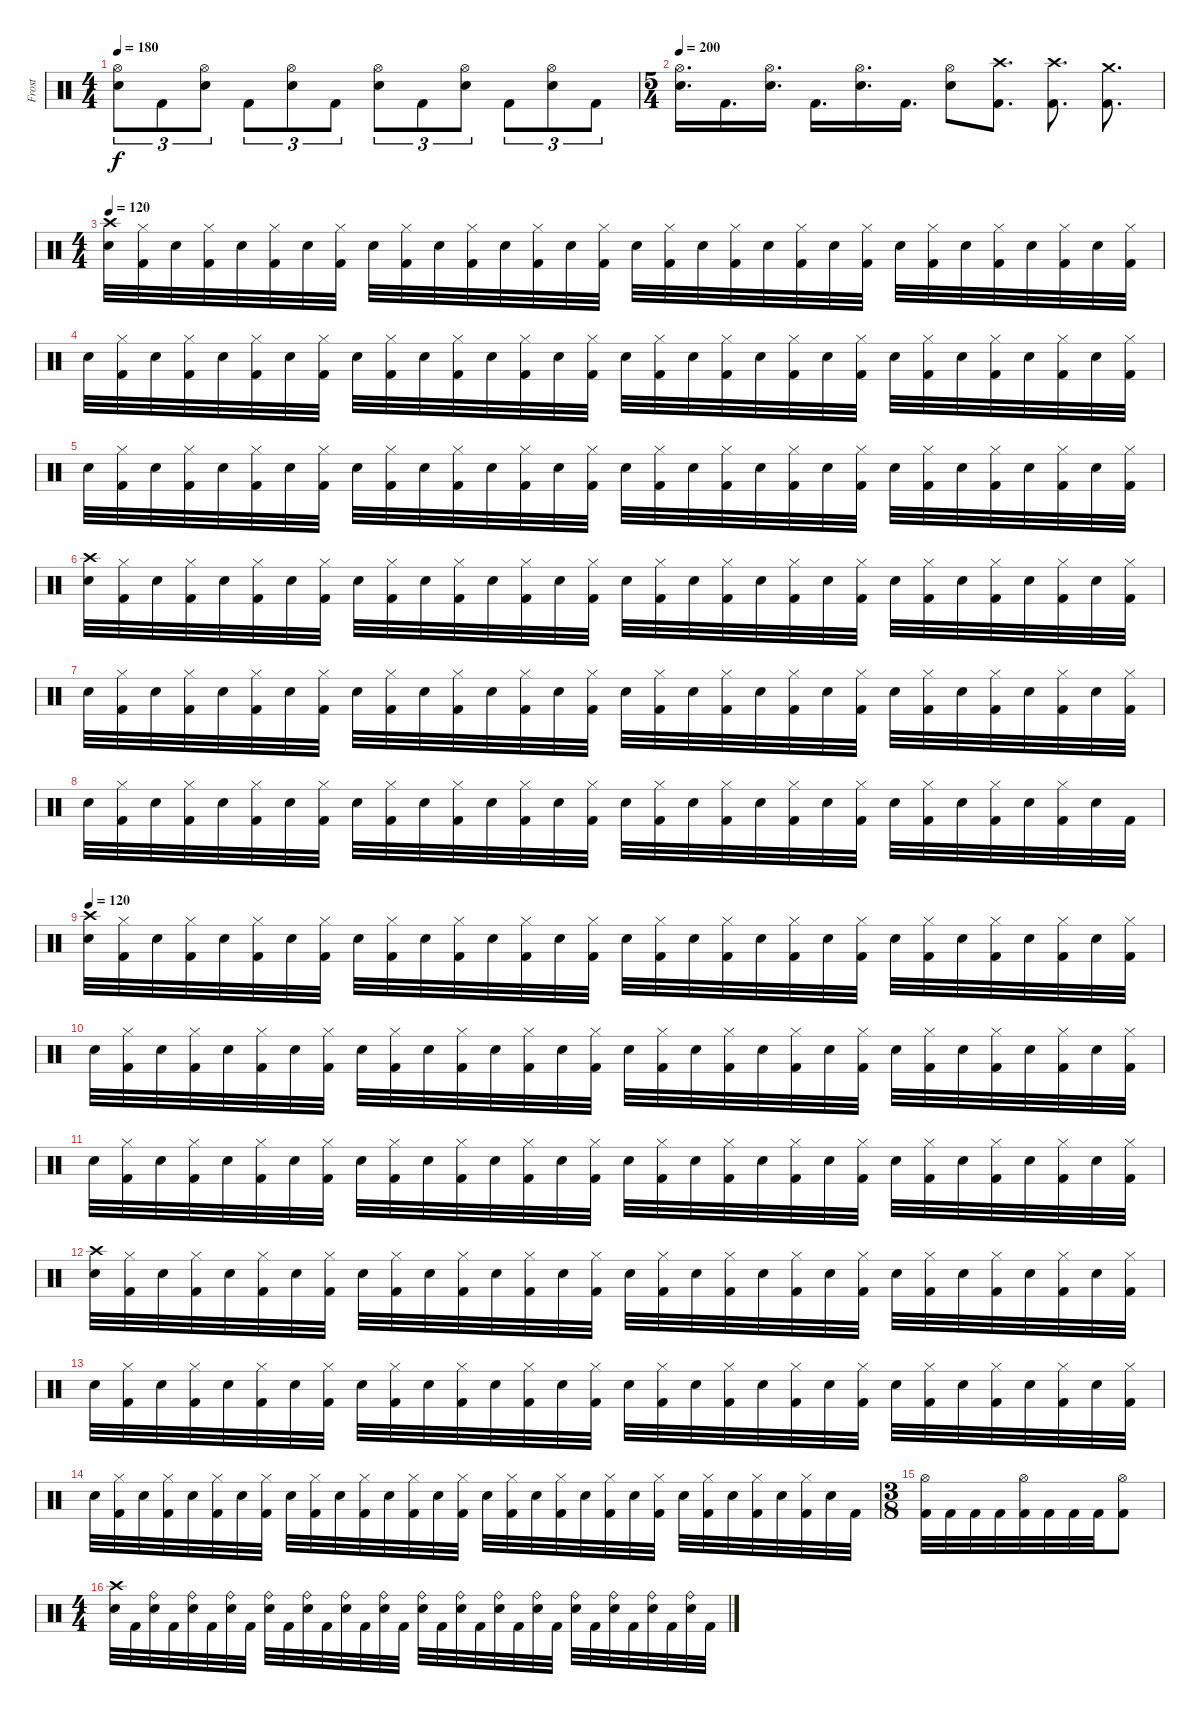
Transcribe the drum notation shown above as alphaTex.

\track ("Frost" "Frost") {instrument percussion}
\staff {score}
\articulation defaults
\ts (4 4)
\tempo 180
\clef neutral
\ks c
("Hi-Hat (open)" "Snare (hit) 2").8{tu (3 2) dy f} "Kick (hit) 2".8{tu (3 2)} ("Hi-Hat (open)" "Snare (hit) 2").8{tu (3 2)} "Kick (hit) 2".8{tu (3 2)} ("Hi-Hat (open)" "Snare (hit) 2").8{tu (3 2)} "Kick (hit) 2".8{tu (3 2)} ("Hi-Hat (open)" "Snare (hit) 2").8{tu (3 2)} "Kick (hit) 2".8{tu (3 2)} ("Hi-Hat (open)" "Snare (hit) 2").8{tu (3 2)} "Kick (hit) 2".8{tu (3 2)} ("Hi-Hat (open)" "Snare (hit) 2").8{tu (3 2)} "Kick (hit) 2".8{tu (3 2)} |
\ts (5 4)
\tempo 200
("Hi-Hat (open)" "Snare (hit) 2").16{d} "Kick (hit) 2".16{d} ("Hi-Hat (open)" "Snare (hit) 2").16{d} "Kick (hit) 2".16{d} ("Hi-Hat (open)" "Snare (hit) 2").16{d} "Kick (hit) 2".16{d} ("Hi-Hat (open)" "Snare (hit) 2").8 ("Crash high (hit)" "Kick (hit) 2").8{d} ("Crash high (hit)" "Kick (hit) 2").8{d} ("Crash medium (hit)" "Kick (hit) 2").8{d} |
\ts (4 4)
\tempo 120
("Crash high (hit)" "Snare (hit) 2").32 ("Hi-Hat (closed)" "Kick (hit) 2").32 "Snare (hit) 2".32 ("Hi-Hat (closed)" "Kick (hit) 2").32 "Snare (hit) 2".32 ("Hi-Hat (closed)" "Kick (hit) 2").32 "Snare (hit) 2".32 ("Hi-Hat (closed)" "Kick (hit) 2").32 "Snare (hit) 2".32 ("Hi-Hat (closed)" "Kick (hit) 2").32 "Snare (hit) 2".32 ("Hi-Hat (closed)" "Kick (hit) 2").32 "Snare (hit) 2".32 ("Hi-Hat (closed)" "Kick (hit) 2").32 "Snare (hit) 2".32 ("Hi-Hat (closed)" "Kick (hit) 2").32 "Snare (hit) 2".32 ("Hi-Hat (closed)" "Kick (hit) 2").32 "Snare (hit) 2".32 ("Hi-Hat (closed)" "Kick (hit) 2").32 "Snare (hit) 2".32 ("Hi-Hat (closed)" "Kick (hit) 2").32 "Snare (hit) 2".32 ("Hi-Hat (closed)" "Kick (hit) 2").32 "Snare (hit) 2".32 ("Hi-Hat (closed)" "Kick (hit) 2").32 "Snare (hit) 2".32 ("Hi-Hat (closed)" "Kick (hit) 2").32 "Snare (hit) 2".32 ("Hi-Hat (closed)" "Kick (hit) 2").32 "Snare (hit) 2".32 ("Hi-Hat (closed)" "Kick (hit) 2").32 |
"Snare (hit) 2".32 ("Hi-Hat (closed)" "Kick (hit) 2").32 "Snare (hit) 2".32 ("Hi-Hat (closed)" "Kick (hit) 2").32 "Snare (hit) 2".32 ("Hi-Hat (closed)" "Kick (hit) 2").32 "Snare (hit) 2".32 ("Hi-Hat (closed)" "Kick (hit) 2").32 "Snare (hit) 2".32 ("Hi-Hat (closed)" "Kick (hit) 2").32 "Snare (hit) 2".32 ("Hi-Hat (closed)" "Kick (hit) 2").32 "Snare (hit) 2".32 ("Hi-Hat (closed)" "Kick (hit) 2").32 "Snare (hit) 2".32 ("Hi-Hat (closed)" "Kick (hit) 2").32 "Snare (hit) 2".32 ("Hi-Hat (closed)" "Kick (hit) 2").32 "Snare (hit) 2".32 ("Hi-Hat (closed)" "Kick (hit) 2").32 "Snare (hit) 2".32 ("Hi-Hat (closed)" "Kick (hit) 2").32 "Snare (hit) 2".32 ("Hi-Hat (closed)" "Kick (hit) 2").32 "Snare (hit) 2".32 ("Hi-Hat (closed)" "Kick (hit) 2").32 "Snare (hit) 2".32 ("Hi-Hat (closed)" "Kick (hit) 2").32 "Snare (hit) 2".32 ("Hi-Hat (closed)" "Kick (hit) 2").32 "Snare (hit) 2".32 ("Hi-Hat (closed)" "Kick (hit) 2").32 |
"Snare (hit) 2".32 ("Hi-Hat (closed)" "Kick (hit) 2").32 "Snare (hit) 2".32 ("Hi-Hat (closed)" "Kick (hit) 2").32 "Snare (hit) 2".32 ("Hi-Hat (closed)" "Kick (hit) 2").32 "Snare (hit) 2".32 ("Hi-Hat (closed)" "Kick (hit) 2").32 "Snare (hit) 2".32 ("Hi-Hat (closed)" "Kick (hit) 2").32 "Snare (hit) 2".32 ("Hi-Hat (closed)" "Kick (hit) 2").32 "Snare (hit) 2".32 ("Hi-Hat (closed)" "Kick (hit) 2").32 "Snare (hit) 2".32 ("Hi-Hat (closed)" "Kick (hit) 2").32 "Snare (hit) 2".32 ("Hi-Hat (closed)" "Kick (hit) 2").32 "Snare (hit) 2".32 ("Hi-Hat (closed)" "Kick (hit) 2").32 "Snare (hit) 2".32 ("Hi-Hat (closed)" "Kick (hit) 2").32 "Snare (hit) 2".32 ("Hi-Hat (closed)" "Kick (hit) 2").32 "Snare (hit) 2".32 ("Hi-Hat (closed)" "Kick (hit) 2").32 "Snare (hit) 2".32 ("Hi-Hat (closed)" "Kick (hit) 2").32 "Snare (hit) 2".32 ("Hi-Hat (closed)" "Kick (hit) 2").32 "Snare (hit) 2".32 ("Hi-Hat (closed)" "Kick (hit) 2").32 |
("Crash high (hit)" "Snare (hit) 2").32 ("Hi-Hat (closed)" "Kick (hit) 2").32 "Snare (hit) 2".32 ("Hi-Hat (closed)" "Kick (hit) 2").32 "Snare (hit) 2".32 ("Hi-Hat (closed)" "Kick (hit) 2").32 "Snare (hit) 2".32 ("Hi-Hat (closed)" "Kick (hit) 2").32 "Snare (hit) 2".32 ("Hi-Hat (closed)" "Kick (hit) 2").32 "Snare (hit) 2".32 ("Hi-Hat (closed)" "Kick (hit) 2").32 "Snare (hit) 2".32 ("Hi-Hat (closed)" "Kick (hit) 2").32 "Snare (hit) 2".32 ("Hi-Hat (closed)" "Kick (hit) 2").32 "Snare (hit) 2".32 ("Hi-Hat (closed)" "Kick (hit) 2").32 "Snare (hit) 2".32 ("Hi-Hat (closed)" "Kick (hit) 2").32 "Snare (hit) 2".32 ("Hi-Hat (closed)" "Kick (hit) 2").32 "Snare (hit) 2".32 ("Hi-Hat (closed)" "Kick (hit) 2").32 "Snare (hit) 2".32 ("Hi-Hat (closed)" "Kick (hit) 2").32 "Snare (hit) 2".32 ("Hi-Hat (closed)" "Kick (hit) 2").32 "Snare (hit) 2".32 ("Hi-Hat (closed)" "Kick (hit) 2").32 "Snare (hit) 2".32 ("Hi-Hat (closed)" "Kick (hit) 2").32 |
"Snare (hit) 2".32 ("Hi-Hat (closed)" "Kick (hit) 2").32 "Snare (hit) 2".32 ("Hi-Hat (closed)" "Kick (hit) 2").32 "Snare (hit) 2".32 ("Hi-Hat (closed)" "Kick (hit) 2").32 "Snare (hit) 2".32 ("Hi-Hat (closed)" "Kick (hit) 2").32 "Snare (hit) 2".32 ("Hi-Hat (closed)" "Kick (hit) 2").32 "Snare (hit) 2".32 ("Hi-Hat (closed)" "Kick (hit) 2").32 "Snare (hit) 2".32 ("Hi-Hat (closed)" "Kick (hit) 2").32 "Snare (hit) 2".32 ("Hi-Hat (closed)" "Kick (hit) 2").32 "Snare (hit) 2".32 ("Hi-Hat (closed)" "Kick (hit) 2").32 "Snare (hit) 2".32 ("Hi-Hat (closed)" "Kick (hit) 2").32 "Snare (hit) 2".32 ("Hi-Hat (closed)" "Kick (hit) 2").32 "Snare (hit) 2".32 ("Hi-Hat (closed)" "Kick (hit) 2").32 "Snare (hit) 2".32 ("Hi-Hat (closed)" "Kick (hit) 2").32 "Snare (hit) 2".32 ("Hi-Hat (closed)" "Kick (hit) 2").32 "Snare (hit) 2".32 ("Hi-Hat (closed)" "Kick (hit) 2").32 "Snare (hit) 2".32 ("Hi-Hat (closed)" "Kick (hit) 2").32 |
"Snare (hit) 2".32 ("Hi-Hat (closed)" "Kick (hit) 2").32 "Snare (hit) 2".32 ("Hi-Hat (closed)" "Kick (hit) 2").32 "Snare (hit) 2".32 ("Hi-Hat (closed)" "Kick (hit) 2").32 "Snare (hit) 2".32 ("Hi-Hat (closed)" "Kick (hit) 2").32 "Snare (hit) 2".32 ("Hi-Hat (closed)" "Kick (hit) 2").32 "Snare (hit) 2".32 ("Hi-Hat (closed)" "Kick (hit) 2").32 "Snare (hit) 2".32 ("Hi-Hat (closed)" "Kick (hit) 2").32 "Snare (hit) 2".32 ("Hi-Hat (closed)" "Kick (hit) 2").32 "Snare (hit) 2".32 ("Hi-Hat (closed)" "Kick (hit) 2").32 "Snare (hit) 2".32 ("Hi-Hat (closed)" "Kick (hit) 2").32 "Snare (hit) 2".32 ("Hi-Hat (closed)" "Kick (hit) 2").32 "Snare (hit) 2".32 ("Hi-Hat (closed)" "Kick (hit) 2").32 "Snare (hit) 2".32 ("Hi-Hat (closed)" "Kick (hit) 2").32 "Snare (hit) 2".32 ("Hi-Hat (closed)" "Kick (hit) 2").32 "Snare (hit) 2".32 ("Hi-Hat (closed)" "Kick (hit) 2").32 "Snare (hit) 2".32 "Kick (hit) 2".32 |
\tempo 120
("Crash high (hit)" "Snare (hit) 2").32 ("Hi-Hat (closed)" "Kick (hit) 2").32 "Snare (hit) 2".32 ("Hi-Hat (closed)" "Kick (hit) 2").32 "Snare (hit) 2".32 ("Hi-Hat (closed)" "Kick (hit) 2").32 "Snare (hit) 2".32 ("Hi-Hat (closed)" "Kick (hit) 2").32 "Snare (hit) 2".32 ("Hi-Hat (closed)" "Kick (hit) 2").32 "Snare (hit) 2".32 ("Hi-Hat (closed)" "Kick (hit) 2").32 "Snare (hit) 2".32 ("Hi-Hat (closed)" "Kick (hit) 2").32 "Snare (hit) 2".32 ("Hi-Hat (closed)" "Kick (hit) 2").32 "Snare (hit) 2".32 ("Hi-Hat (closed)" "Kick (hit) 2").32 "Snare (hit) 2".32 ("Hi-Hat (closed)" "Kick (hit) 2").32 "Snare (hit) 2".32 ("Hi-Hat (closed)" "Kick (hit) 2").32 "Snare (hit) 2".32 ("Hi-Hat (closed)" "Kick (hit) 2").32 "Snare (hit) 2".32 ("Hi-Hat (closed)" "Kick (hit) 2").32 "Snare (hit) 2".32 ("Hi-Hat (closed)" "Kick (hit) 2").32 "Snare (hit) 2".32 ("Hi-Hat (closed)" "Kick (hit) 2").32 "Snare (hit) 2".32 ("Hi-Hat (closed)" "Kick (hit) 2").32 |
"Snare (hit) 2".32 ("Hi-Hat (closed)" "Kick (hit) 2").32 "Snare (hit) 2".32 ("Hi-Hat (closed)" "Kick (hit) 2").32 "Snare (hit) 2".32 ("Hi-Hat (closed)" "Kick (hit) 2").32 "Snare (hit) 2".32 ("Hi-Hat (closed)" "Kick (hit) 2").32 "Snare (hit) 2".32 ("Hi-Hat (closed)" "Kick (hit) 2").32 "Snare (hit) 2".32 ("Hi-Hat (closed)" "Kick (hit) 2").32 "Snare (hit) 2".32 ("Hi-Hat (closed)" "Kick (hit) 2").32 "Snare (hit) 2".32 ("Hi-Hat (closed)" "Kick (hit) 2").32 "Snare (hit) 2".32 ("Hi-Hat (closed)" "Kick (hit) 2").32 "Snare (hit) 2".32 ("Hi-Hat (closed)" "Kick (hit) 2").32 "Snare (hit) 2".32 ("Hi-Hat (closed)" "Kick (hit) 2").32 "Snare (hit) 2".32 ("Hi-Hat (closed)" "Kick (hit) 2").32 "Snare (hit) 2".32 ("Hi-Hat (closed)" "Kick (hit) 2").32 "Snare (hit) 2".32 ("Hi-Hat (closed)" "Kick (hit) 2").32 "Snare (hit) 2".32 ("Hi-Hat (closed)" "Kick (hit) 2").32 "Snare (hit) 2".32 ("Hi-Hat (closed)" "Kick (hit) 2").32 |
"Snare (hit) 2".32 ("Hi-Hat (closed)" "Kick (hit) 2").32 "Snare (hit) 2".32 ("Hi-Hat (closed)" "Kick (hit) 2").32 "Snare (hit) 2".32 ("Hi-Hat (closed)" "Kick (hit) 2").32 "Snare (hit) 2".32 ("Hi-Hat (closed)" "Kick (hit) 2").32 "Snare (hit) 2".32 ("Hi-Hat (closed)" "Kick (hit) 2").32 "Snare (hit) 2".32 ("Hi-Hat (closed)" "Kick (hit) 2").32 "Snare (hit) 2".32 ("Hi-Hat (closed)" "Kick (hit) 2").32 "Snare (hit) 2".32 ("Hi-Hat (closed)" "Kick (hit) 2").32 "Snare (hit) 2".32 ("Hi-Hat (closed)" "Kick (hit) 2").32 "Snare (hit) 2".32 ("Hi-Hat (closed)" "Kick (hit) 2").32 "Snare (hit) 2".32 ("Hi-Hat (closed)" "Kick (hit) 2").32 "Snare (hit) 2".32 ("Hi-Hat (closed)" "Kick (hit) 2").32 "Snare (hit) 2".32 ("Hi-Hat (closed)" "Kick (hit) 2").32 "Snare (hit) 2".32 ("Hi-Hat (closed)" "Kick (hit) 2").32 "Snare (hit) 2".32 ("Hi-Hat (closed)" "Kick (hit) 2").32 "Snare (hit) 2".32 ("Hi-Hat (closed)" "Kick (hit) 2").32 |
("Crash high (hit)" "Snare (hit) 2").32 ("Hi-Hat (closed)" "Kick (hit) 2").32 "Snare (hit) 2".32 ("Hi-Hat (closed)" "Kick (hit) 2").32 "Snare (hit) 2".32 ("Hi-Hat (closed)" "Kick (hit) 2").32 "Snare (hit) 2".32 ("Hi-Hat (closed)" "Kick (hit) 2").32 "Snare (hit) 2".32 ("Hi-Hat (closed)" "Kick (hit) 2").32 "Snare (hit) 2".32 ("Hi-Hat (closed)" "Kick (hit) 2").32 "Snare (hit) 2".32 ("Hi-Hat (closed)" "Kick (hit) 2").32 "Snare (hit) 2".32 ("Hi-Hat (closed)" "Kick (hit) 2").32 "Snare (hit) 2".32 ("Hi-Hat (closed)" "Kick (hit) 2").32 "Snare (hit) 2".32 ("Hi-Hat (closed)" "Kick (hit) 2").32 "Snare (hit) 2".32 ("Hi-Hat (closed)" "Kick (hit) 2").32 "Snare (hit) 2".32 ("Hi-Hat (closed)" "Kick (hit) 2").32 "Snare (hit) 2".32 ("Hi-Hat (closed)" "Kick (hit) 2").32 "Snare (hit) 2".32 ("Hi-Hat (closed)" "Kick (hit) 2").32 "Snare (hit) 2".32 ("Hi-Hat (closed)" "Kick (hit) 2").32 "Snare (hit) 2".32 ("Hi-Hat (closed)" "Kick (hit) 2").32 |
"Snare (hit) 2".32 ("Hi-Hat (closed)" "Kick (hit) 2").32 "Snare (hit) 2".32 ("Hi-Hat (closed)" "Kick (hit) 2").32 "Snare (hit) 2".32 ("Hi-Hat (closed)" "Kick (hit) 2").32 "Snare (hit) 2".32 ("Hi-Hat (closed)" "Kick (hit) 2").32 "Snare (hit) 2".32 ("Hi-Hat (closed)" "Kick (hit) 2").32 "Snare (hit) 2".32 ("Hi-Hat (closed)" "Kick (hit) 2").32 "Snare (hit) 2".32 ("Hi-Hat (closed)" "Kick (hit) 2").32 "Snare (hit) 2".32 ("Hi-Hat (closed)" "Kick (hit) 2").32 "Snare (hit) 2".32 ("Hi-Hat (closed)" "Kick (hit) 2").32 "Snare (hit) 2".32 ("Hi-Hat (closed)" "Kick (hit) 2").32 "Snare (hit) 2".32 ("Hi-Hat (closed)" "Kick (hit) 2").32 "Snare (hit) 2".32 ("Hi-Hat (closed)" "Kick (hit) 2").32 "Snare (hit) 2".32 ("Hi-Hat (closed)" "Kick (hit) 2").32 "Snare (hit) 2".32 ("Hi-Hat (closed)" "Kick (hit) 2").32 "Snare (hit) 2".32 ("Hi-Hat (closed)" "Kick (hit) 2").32 "Snare (hit) 2".32 ("Hi-Hat (closed)" "Kick (hit) 2").32 |
"Snare (hit) 2".32 ("Hi-Hat (closed)" "Kick (hit) 2").32 "Snare (hit) 2".32 ("Hi-Hat (closed)" "Kick (hit) 2").32 "Snare (hit) 2".32 ("Hi-Hat (closed)" "Kick (hit) 2").32 "Snare (hit) 2".32 ("Hi-Hat (closed)" "Kick (hit) 2").32 "Snare (hit) 2".32 ("Hi-Hat (closed)" "Kick (hit) 2").32 "Snare (hit) 2".32 ("Hi-Hat (closed)" "Kick (hit) 2").32 "Snare (hit) 2".32 ("Hi-Hat (closed)" "Kick (hit) 2").32 "Snare (hit) 2".32 ("Hi-Hat (closed)" "Kick (hit) 2").32 "Snare (hit) 2".32 ("Hi-Hat (closed)" "Kick (hit) 2").32 "Snare (hit) 2".32 ("Hi-Hat (closed)" "Kick (hit) 2").32 "Snare (hit) 2".32 ("Hi-Hat (closed)" "Kick (hit) 2").32 "Snare (hit) 2".32 ("Hi-Hat (closed)" "Kick (hit) 2").32 "Snare (hit) 2".32 ("Hi-Hat (closed)" "Kick (hit) 2").32 "Snare (hit) 2".32 ("Hi-Hat (closed)" "Kick (hit) 2").32 "Snare (hit) 2".32 ("Hi-Hat (closed)" "Kick (hit) 2").32 "Snare (hit) 2".32 "Kick (hit) 2".32 |
\ts (3 8)
("Hi-Hat (open)" "Kick (hit) 2").32 "Kick (hit) 2".32 "Kick (hit) 2".32 "Kick (hit) 2".32 ("Hi-Hat (open)" "Kick (hit) 2").32 "Kick (hit) 2".32 "Kick (hit) 2".32 "Kick (hit) 2".32 ("Hi-Hat (open)" "Kick (hit) 2").8 |
\ts (4 4)
("Crash high (hit)" "Snare (hit) 2").32 "Kick (hit) 2".32 ("Ride (bell)" "Snare (hit) 2").32 "Kick (hit) 2".32 ("Ride (bell)" "Snare (hit) 2").32 "Kick (hit) 2".32 ("Ride (bell)" "Snare (hit) 2").32 "Kick (hit) 2".32 ("Ride (bell)" "Snare (hit) 2").32 "Kick (hit) 2".32 ("Ride (bell)" "Snare (hit) 2").32 "Kick (hit) 2".32 ("Ride (bell)" "Snare (hit) 2").32 "Kick (hit) 2".32 ("Ride (bell)" "Snare (hit) 2").32 "Kick (hit) 2".32 ("Ride (bell)" "Snare (hit) 2").32 "Kick (hit) 2".32 ("Ride (bell)" "Snare (hit) 2").32 "Kick (hit) 2".32 ("Ride (bell)" "Snare (hit) 2").32 "Kick (hit) 2".32 ("Ride (bell)" "Snare (hit) 2").32 "Kick (hit) 2".32 ("Ride (bell)" "Snare (hit) 2").32 "Kick (hit) 2".32 ("Ride (bell)" "Snare (hit) 2").32 "Kick (hit) 2".32 ("Ride (bell)" "Snare (hit) 2").32 "Kick (hit) 2".32 ("Ride (bell)" "Snare (hit) 2").32 "Kick (hit) 2".32
